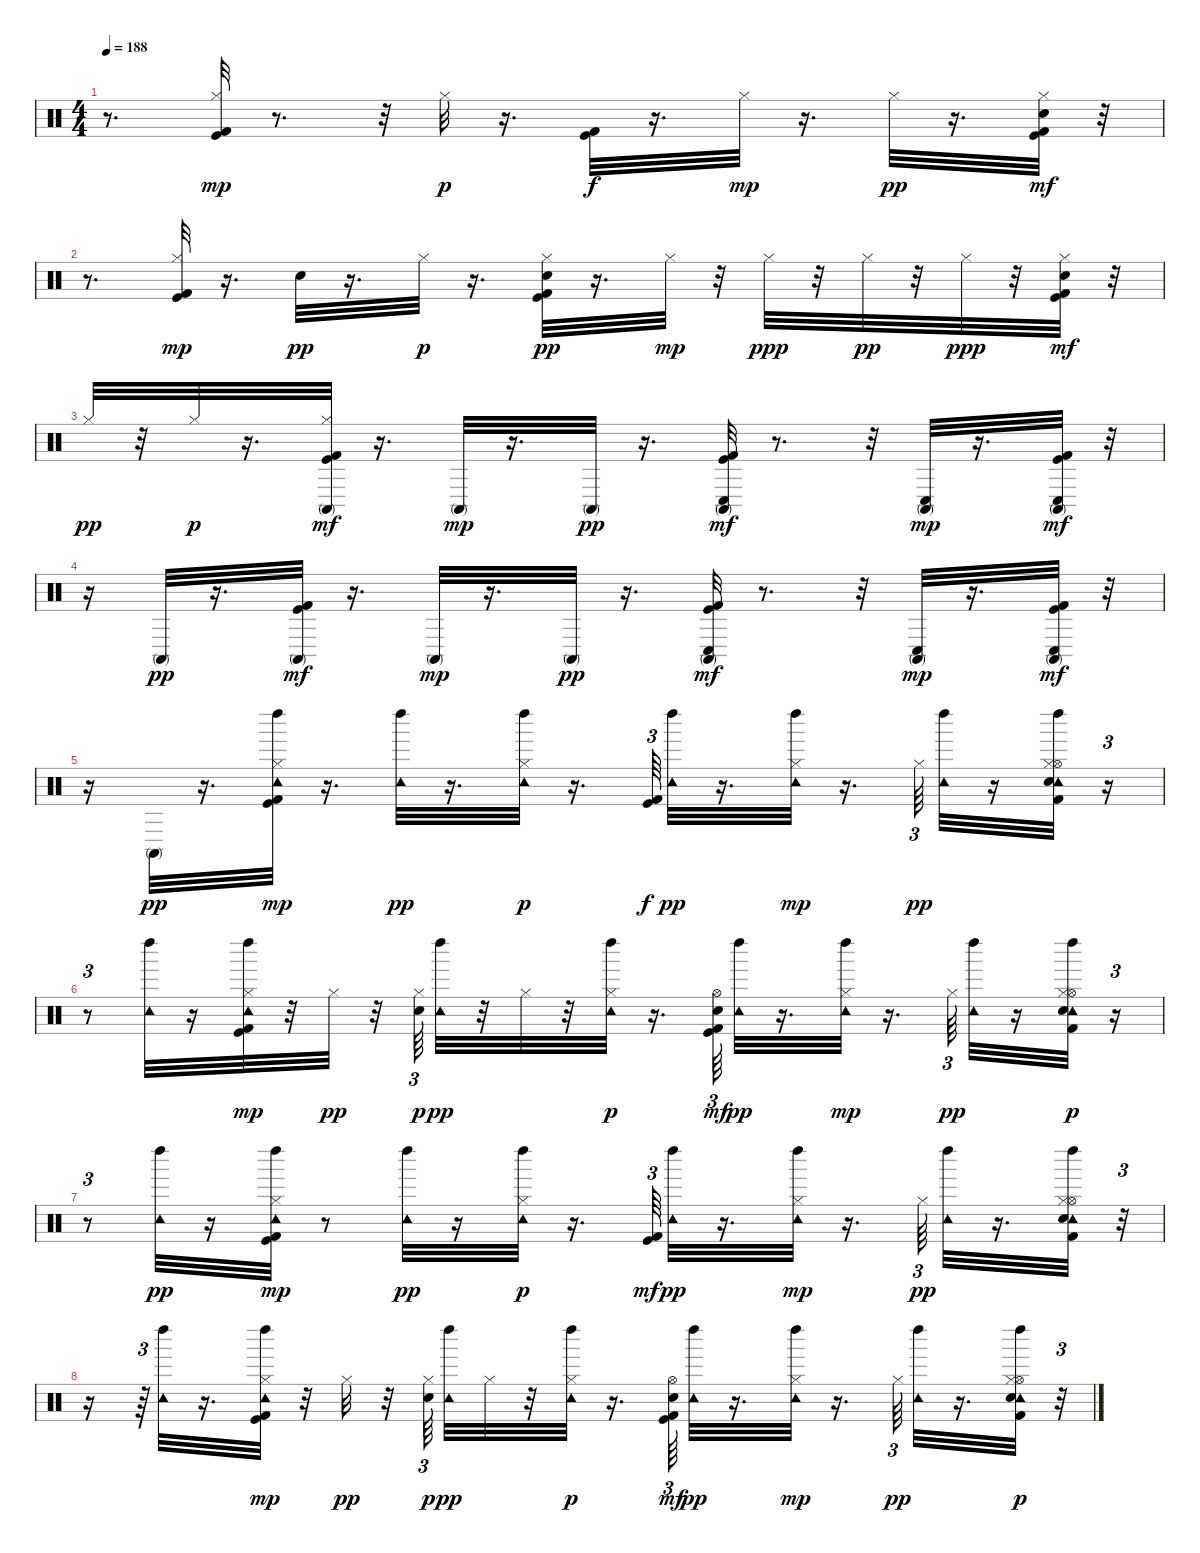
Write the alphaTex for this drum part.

\track "" {instrument percussion}
\staff {score}
\articulation defaults
\ts (4 4)
\tempo 188
\clef neutral
\ks c
r.8{d dy mf} ("Kick (hit) 2" "Hi-Hat (closed)" "Kick (hit)").32{dy mp} r.8{d} r.32 "Hi-Hat (closed)".32{dy p} r.16{d} ("Kick (hit) 2" "Kick (hit)").32{dy f} r.16{d} "Hi-Hat (closed)".32{dy mp} r.16{d} "Hi-Hat (closed)".32{dy pp} r.16{d} ("Kick (hit) 2" "Hi-Hat (closed)" "Electric Snare (hit)" "Kick (hit)").32{dy mf} r.32 |
r.8{d} ("Kick (hit) 2" "Hi-Hat (closed)" "Kick (hit)").32{dy mp} r.16{d} "Electric Snare (hit)".32{dy pp} r.16{d} "Hi-Hat (closed)".32{dy p} r.16{d} ("Kick (hit) 2" "Electric Snare (hit)" "Hi-Hat (closed)" "Kick (hit)").32{dy pp} r.16{d} "Hi-Hat (closed)".32{dy mp} r.32 "Hi-Hat (closed)".32{dy ppp} r.32 "Hi-Hat (closed)".32{dy pp} r.32 "Hi-Hat (closed)".32{dy ppp} r.32 ("Kick (hit) 2" "Electric Snare (hit)" "Hi-Hat (closed)" "Kick (hit)").32{dy mf} r.32 |
"Hi-Hat (closed)".32{dy pp} r.32 "Hi-Hat (closed)".32{dy p} r.16{d} ("Kick (hit) 2" "Hi-Hat (closed)" "Conga high (mute)" "Kick (hit)").32{dy mf} r.16{d} "Conga high (mute)".32{dy mp} r.16{d} "Conga high (mute)".32{dy pp} r.16{d} ("Kick (hit) 2" "Conga high (mute)" "Conga low (hit)" "Kick (hit)").32{dy mf} r.8{d} r.32 ("Conga high (mute)" "Conga low (hit)").32{dy mp} r.16{d} ("Kick (hit) 2" "Conga high (mute)" "Conga low (hit)" "Kick (hit)").32{dy mf} r.32 |
r.16 "Conga high (mute)".32{dy pp} r.16{d} ("Kick (hit) 2" "Conga high (mute)" "Kick (hit)").32{dy mf} r.16{d} "Conga high (mute)".32{dy mp} r.16{d} "Conga high (mute)".32{dy pp} r.16{d} ("Kick (hit) 2" "Conga high (mute)" "Conga low (hit)" "Kick (hit)").32{dy mf} r.8{d} r.32 ("Conga high (mute)" "Conga low (hit)").32{dy mp} r.16{d} ("Kick (hit) 2" "Conga high (mute)" "Conga low (hit)" "Kick (hit)").32{dy mf} r.32 |
r.16 "Conga high (mute)".32{dy pp} r.16{d} ("Kick (hit) 2" "Hi-Hat (closed)" "Tambourine (hit)" "Left Maraca (hit)" "Kick (hit)").32{dy mp} r.16{d} ("Tambourine (hit)" "Left Maraca (hit)").32{dy pp} r.16{d} ("Hi-Hat (closed)" "Tambourine (hit)" "Left Maraca (hit)").32{dy p} r.16{d} ("Kick (hit) 2" "Kick (hit)").64{tu (3 2) dy f} ("Tambourine (hit)" "Left Maraca (hit)").32{dy pp} r.16{d} ("Hi-Hat (closed)" "Tambourine (hit)" "Left Maraca (hit)").32{dy mp} r.16{d} "Hi-Hat (closed)".64{tu (3 2) dy pp} ("Tambourine (hit)" "Left Maraca (hit)").32 r.16 ("Kick (hit) 2" "Hi-Hat (open)" "Tambourine (hit)" "Left Maraca (hit)" "Electric Snare (hit)" "Hi-Hat (closed)").32 r.16{tu (3 2)} |
r.8{tu (3 2)} ("Tambourine (hit)" "Left Maraca (hit)").32 r.16 ("Kick (hit) 2" "Hi-Hat (closed)" "Tambourine (hit)" "Left Maraca (hit)" "Kick (hit)").32{dy mp} r.32 "Hi-Hat (closed)".32{dy pp} r.32 ("Electric Snare (hit)" "Hi-Hat (closed)").64{tu (3 2) dy p} ("Tambourine (hit)" "Left Maraca (hit)").32{dy pp} r.32 "Hi-Hat (closed)".32 r.32 ("Hi-Hat (closed)" "Tambourine (hit)" "Left Maraca (hit)").32{dy p} r.16{d} ("Kick (hit) 2" "Hi-Hat (open)" "Electric Snare (hit)" "Kick (hit)").64{tu (3 2) dy mf} ("Tambourine (hit)" "Left Maraca (hit)").32{dy pp} r.16{d} ("Hi-Hat (closed)" "Tambourine (hit)" "Left Maraca (hit)").32{dy mp} r.16{d} "Hi-Hat (closed)".64{tu (3 2) dy pp} ("Tambourine (hit)" "Left Maraca (hit)").32 r.16 ("Kick (hit) 2" "Hi-Hat (open)" "Tambourine (hit)" "Left Maraca (hit)" "Electric Snare (hit)" "Hi-Hat (closed)").32{dy p} r.16{tu (3 2)} |
r.8{tu (3 2)} ("Tambourine (hit)" "Left Maraca (hit)").32{dy pp} r.16 ("Kick (hit) 2" "Hi-Hat (closed)" "Tambourine (hit)" "Left Maraca (hit)" "Kick (hit)").32{dy mp} r.8 ("Tambourine (hit)" "Left Maraca (hit)").32{dy pp} r.16 ("Hi-Hat (closed)" "Tambourine (hit)" "Left Maraca (hit)").32{dy p} r.16{d} ("Kick (hit) 2" "Kick (hit)").64{tu (3 2) dy mf} ("Tambourine (hit)" "Left Maraca (hit)").32{dy pp} r.16{d} ("Hi-Hat (closed)" "Tambourine (hit)" "Left Maraca (hit)").32{dy mp} r.16{d} "Hi-Hat (closed)".64{tu (3 2) dy pp} ("Tambourine (hit)" "Left Maraca (hit)").32 r.16{d} ("Kick (hit) 2" "Hi-Hat (open)" "Tambourine (hit)" "Left Maraca (hit)" "Electric Snare (hit)" "Hi-Hat (closed)").32 r.32{tu (3 2)} |
r.16 r.64{tu (3 2)} ("Tambourine (hit)" "Left Maraca (hit)").32 r.16{d} ("Kick (hit) 2" "Hi-Hat (closed)" "Tambourine (hit)" "Left Maraca (hit)" "Kick (hit)").32{dy mp} r.32 "Hi-Hat (closed)".32{dy pp} r.32 ("Electric Snare (hit)" "Hi-Hat (closed)").64{tu (3 2) dy p beam splitsecondary} ("Tambourine (hit)" "Left Maraca (hit)").32{dy pp} "Hi-Hat (closed)".32 r.32 ("Hi-Hat (closed)" "Tambourine (hit)" "Left Maraca (hit)").32{dy p} r.16{d} ("Kick (hit) 2" "Hi-Hat (open)" "Electric Snare (hit)" "Kick (hit)").64{tu (3 2) dy mf} ("Tambourine (hit)" "Left Maraca (hit)").32{dy pp} r.16{d} ("Hi-Hat (closed)" "Tambourine (hit)" "Left Maraca (hit)").32{dy mp} r.16{d} "Hi-Hat (closed)".64{tu (3 2) dy pp} ("Tambourine (hit)" "Left Maraca (hit)").32 r.16{d} ("Kick (hit) 2" "Hi-Hat (open)" "Tambourine (hit)" "Left Maraca (hit)" "Electric Snare (hit)" "Hi-Hat (closed)").32{dy p} r.32{tu (3 2)}
